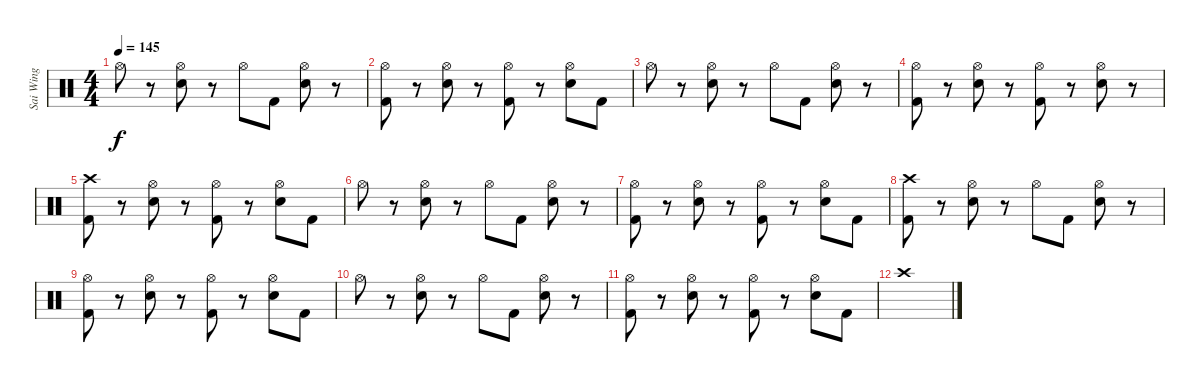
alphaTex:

\track ("Sai Wing" "Sai Wing") {instrument percussion}
\staff {score}
\articulation defaults
\ts (4 4)
\tempo 145
\clef neutral
\ks c "Hi-Hat (open)".8{dy f}
r.8 ("Hi-Hat (open)" "Snare (hit) 2").8 r.8 "Hi-Hat (open)".8 "Kick (hit) 2".8 ("Hi-Hat (open)" "Snare (hit) 2").8 r.8 |
("Hi-Hat (open)" "Kick (hit) 2").8 r.8 ("Hi-Hat (open)" "Snare (hit) 2").8 r.8 ("Hi-Hat (open)" "Kick (hit) 2").8 r.8 ("Hi-Hat (open)" "Snare (hit) 2").8 "Kick (hit) 2".8 |
"Hi-Hat (open)".8 r.8 ("Hi-Hat (open)" "Snare (hit) 2").8 r.8 "Hi-Hat (open)".8 "Kick (hit) 2".8 ("Hi-Hat (open)" "Snare (hit) 2").8 r.8 |
("Hi-Hat (open)" "Kick (hit) 2").8 r.8 ("Hi-Hat (open)" "Snare (hit) 2").8 r.8 ("Hi-Hat (open)" "Kick (hit) 2").8 r.8 ("Hi-Hat (open)" "Snare (hit) 2").8 r.8 |
("Crash high (hit)" "Kick (hit) 2").8 r.8 ("Hi-Hat (open)" "Snare (hit) 2").8 r.8 ("Hi-Hat (open)" "Kick (hit) 2").8 r.8 ("Hi-Hat (open)" "Snare (hit) 2").8 "Kick (hit) 2".8 |
"Hi-Hat (open)".8 r.8 ("Hi-Hat (open)" "Snare (hit) 2").8 r.8 "Hi-Hat (open)".8 "Kick (hit) 2".8 ("Hi-Hat (open)" "Snare (hit) 2").8 r.8 |
("Hi-Hat (open)" "Kick (hit) 2").8 r.8 ("Hi-Hat (open)" "Snare (hit) 2").8 r.8 ("Hi-Hat (open)" "Kick (hit) 2").8 r.8 ("Hi-Hat (open)" "Snare (hit) 2").8 "Kick (hit) 2".8 |
("Crash high (hit)" "Kick (hit) 2").8 r.8 ("Hi-Hat (open)" "Snare (hit) 2").8 r.8 "Hi-Hat (open)".8 "Kick (hit) 2".8 ("Hi-Hat (open)" "Snare (hit) 2").8 r.8 |
("Hi-Hat (open)" "Kick (hit) 2").8 r.8 ("Hi-Hat (open)" "Snare (hit) 2").8 r.8 ("Hi-Hat (open)" "Kick (hit) 2").8 r.8 ("Hi-Hat (open)" "Snare (hit) 2").8 "Kick (hit) 2".8 |
"Hi-Hat (open)".8 r.8 ("Hi-Hat (open)" "Snare (hit) 2").8 r.8 "Hi-Hat (open)".8 "Kick (hit) 2".8 ("Hi-Hat (open)" "Snare (hit) 2").8 r.8 |
("Hi-Hat (open)" "Kick (hit) 2").8 r.8 ("Hi-Hat (open)" "Snare (hit) 2").8 r.8 ("Hi-Hat (open)" "Kick (hit) 2").8 r.8 ("Hi-Hat (open)" "Snare (hit) 2").8 "Kick (hit) 2".8 |
"Crash high (hit)".1
